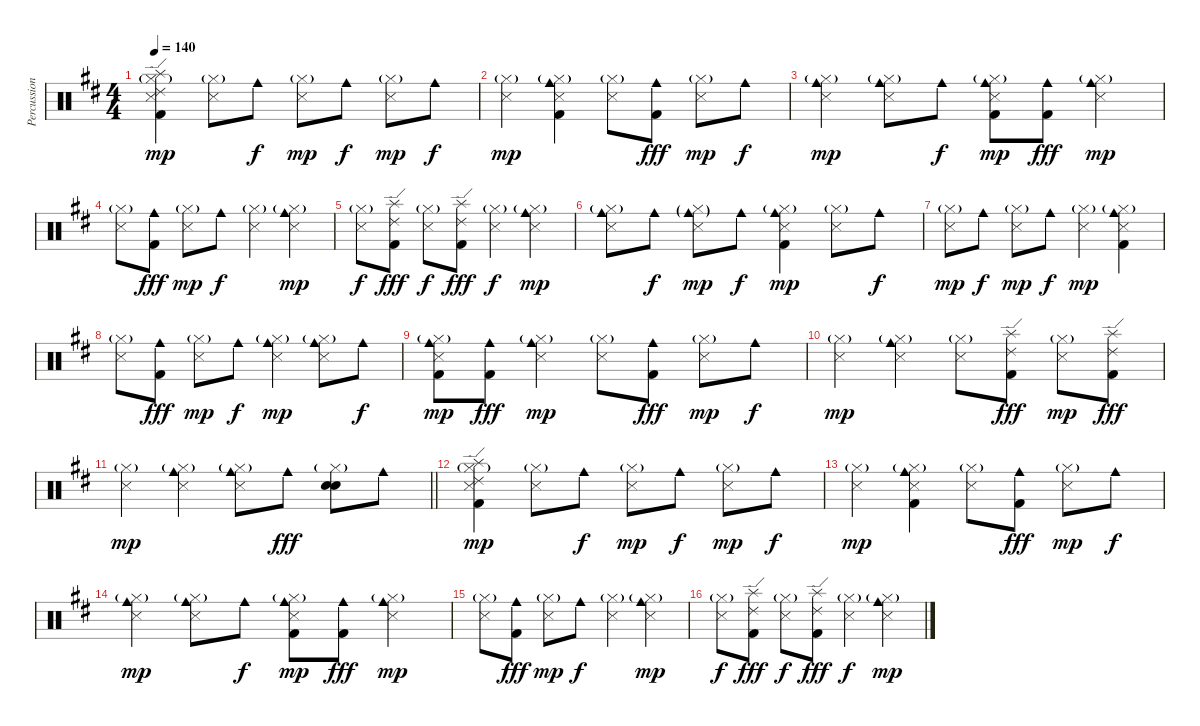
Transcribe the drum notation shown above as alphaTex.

\track ("Percussions" "Percussion") {instrument percussion}
\staff {score}
\articulation defaults
\ts (4 4)
\tempo 140
\clef neutral
\ks d
("Splash (hit)" "Ride (edge) 2" "Snare (side stick) 3" "Kick (hit) 2" "Hi-Hat (closed)"{g}).4{dy mp} ("Snare (side stick) 3" "Hi-Hat (closed)"{g}).8 "Cowbell medium (hit)".8{dy f} ("Snare (side stick) 3" "Hi-Hat (closed)"{g}).8{dy mp} "Cowbell medium (hit)".8{dy f} ("Snare (side stick) 3" "Hi-Hat (closed)"{g}).8{dy mp} "Cowbell medium (hit)".8{dy f} |
("Snare (side stick) 3" "Hi-Hat (closed)"{g}).4{dy mp} ("Cowbell medium (hit)" "Snare (side stick) 3" "Kick (hit) 2" "Hi-Hat (closed)"{g}).4 ("Snare (side stick) 3" "Hi-Hat (closed)"{g}).8 ("Cowbell medium (hit)" "Kick (hit) 2").8{dy fff} ("Snare (side stick) 3" "Hi-Hat (closed)"{g}).8{dy mp} "Cowbell medium (hit)".8{dy f} |
("Cowbell medium (hit)" "Snare (side stick) 3" "Hi-Hat (closed)"{g}).4{dy mp} ("Cowbell medium (hit)" "Snare (side stick) 3" "Hi-Hat (closed)"{g}).8 "Cowbell medium (hit)".8{dy f} ("Cowbell medium (hit)" "Snare (side stick) 3" "Kick (hit) 2" "Hi-Hat (closed)"{g}).8{dy mp} ("Cowbell medium (hit)" "Kick (hit) 2").8{dy fff} ("Cowbell medium (hit)" "Snare (side stick) 3" "Hi-Hat (closed)"{g}).4{dy mp} |
("Snare (side stick) 3" "Hi-Hat (closed)"{g}).8 ("Cowbell medium (hit)" "Kick (hit) 2").8{dy fff} ("Snare (side stick) 3" "Hi-Hat (closed)"{g}).8{dy mp} "Cowbell medium (hit)".8{dy f} ("Snare (side stick) 3" "Hi-Hat (closed)"{g}).4 ("Cowbell medium (hit)" "Snare (side stick) 3" "Hi-Hat (closed)"{g}).4{dy mp} |
("Snare (side stick) 3" "Hi-Hat (closed)"{g}).8{dy f} ("Ride (edge) 2" "Splash (hit)" "Kick (hit) 2").8{dy fff} ("Snare (side stick) 3" "Hi-Hat (closed)"{g}).8{dy f} ("Ride (edge) 2" "Splash (hit)" "Kick (hit) 2").8{dy fff} ("Snare (side stick) 3" "Hi-Hat (closed)"{g}).4{dy f} ("Cowbell medium (hit)" "Snare (side stick) 3" "Hi-Hat (closed)"{g}).4{dy mp} |
("Cowbell medium (hit)" "Snare (side stick) 3" "Hi-Hat (closed)"{g}).8 "Cowbell medium (hit)".8{dy f} ("Cowbell medium (hit)"{g} "Snare (side stick) 3" "Hi-Hat (closed)"{g}).8{dy mp} "Cowbell medium (hit)".8{dy f} ("Cowbell medium (hit)" "Snare (side stick) 3" "Kick (hit) 2" "Hi-Hat (closed)"{g}).4{dy mp} ("Snare (side stick) 3" "Hi-Hat (closed)"{g}).8 "Cowbell medium (hit)".8{dy f} |
("Snare (side stick) 3" "Hi-Hat (closed)"{g}).8{dy mp} "Cowbell medium (hit)".8{dy f} ("Snare (side stick) 3" "Hi-Hat (closed)"{g}).8{dy mp} "Cowbell medium (hit)".8{dy f} ("Snare (side stick) 3" "Hi-Hat (closed)"{g}).4{dy mp} ("Cowbell medium (hit)" "Snare (side stick) 3" "Kick (hit) 2" "Hi-Hat (closed)"{g}).4 |
("Snare (side stick) 3" "Hi-Hat (closed)"{g}).8 ("Cowbell medium (hit)" "Kick (hit) 2").8{dy fff} ("Snare (side stick) 3" "Hi-Hat (closed)"{g}).8{dy mp} "Cowbell medium (hit)".8{dy f} ("Cowbell medium (hit)" "Snare (side stick) 3" "Hi-Hat (closed)"{g}).4{dy mp} ("Cowbell medium (hit)" "Snare (side stick) 3" "Hi-Hat (closed)"{g}).8 "Cowbell medium (hit)".8{dy f} |
("Cowbell medium (hit)" "Snare (side stick) 3" "Kick (hit) 2" "Hi-Hat (closed)"{g}).8{dy mp} ("Cowbell medium (hit)" "Kick (hit) 2").8{dy fff} ("Cowbell medium (hit)" "Snare (side stick) 3" "Hi-Hat (closed)"{g}).4{dy mp} ("Snare (side stick) 3" "Hi-Hat (closed)"{g}).8 ("Cowbell medium (hit)" "Kick (hit) 2").8{dy fff} ("Snare (side stick) 3" "Hi-Hat (closed)"{g}).8{dy mp} "Cowbell medium (hit)".8{dy f} |
("Snare (side stick) 3" "Hi-Hat (closed)"{g}).4{dy mp} ("Cowbell medium (hit)" "Snare (side stick) 3" "Hi-Hat (closed)"{g}).4 ("Snare (side stick) 3" "Hi-Hat (closed)"{g}).8 ("Ride (edge) 2" "Splash (hit)" "Kick (hit) 2").8{dy fff} ("Snare (side stick) 3" "Hi-Hat (closed)"{g}).8{dy mp} ("Ride (edge) 2" "Splash (hit)" "Kick (hit) 2").8{dy fff} |
\barLineRight lightlight
("Snare (side stick) 3" "Hi-Hat (closed)"{g}).4{dy mp} ("Cowbell medium (hit)" "Snare (side stick) 3" "Hi-Hat (closed)"{g}).4 ("Cowbell medium (hit)" "Snare (side stick) 3" "Hi-Hat (closed)"{g}).8 "Cowbell medium (hit)".8{dy fff} ("Electric Snare (hit)" "Snare (hit) 2" "Hi-Hat (closed)"{g}).8 "Cowbell medium (hit)".8 |
("Splash (hit)" "Ride (edge) 2" "Snare (side stick) 3" "Kick (hit) 2" "Hi-Hat (closed)"{g}).4{dy mp} ("Snare (side stick) 3" "Hi-Hat (closed)"{g}).8 "Cowbell medium (hit)".8{dy f} ("Snare (side stick) 3" "Hi-Hat (closed)"{g}).8{dy mp} "Cowbell medium (hit)".8{dy f} ("Snare (side stick) 3" "Hi-Hat (closed)"{g}).8{dy mp} "Cowbell medium (hit)".8{dy f} |
("Snare (side stick) 3" "Hi-Hat (closed)"{g}).4{dy mp} ("Cowbell medium (hit)" "Snare (side stick) 3" "Kick (hit) 2" "Hi-Hat (closed)"{g}).4 ("Snare (side stick) 3" "Hi-Hat (closed)"{g}).8 ("Cowbell medium (hit)" "Kick (hit) 2").8{dy fff} ("Snare (side stick) 3" "Hi-Hat (closed)"{g}).8{dy mp} "Cowbell medium (hit)".8{dy f} |
("Cowbell medium (hit)" "Snare (side stick) 3" "Hi-Hat (closed)"{g}).4{dy mp} ("Cowbell medium (hit)" "Snare (side stick) 3" "Hi-Hat (closed)"{g}).8 "Cowbell medium (hit)".8{dy f} ("Cowbell medium (hit)" "Snare (side stick) 3" "Kick (hit) 2" "Hi-Hat (closed)"{g}).8{dy mp} ("Cowbell medium (hit)" "Kick (hit) 2").8{dy fff} ("Cowbell medium (hit)" "Snare (side stick) 3" "Hi-Hat (closed)"{g}).4{dy mp} |
("Snare (side stick) 3" "Hi-Hat (closed)"{g}).8 ("Cowbell medium (hit)" "Kick (hit) 2").8{dy fff} ("Snare (side stick) 3" "Hi-Hat (closed)"{g}).8{dy mp} "Cowbell medium (hit)".8{dy f} ("Snare (side stick) 3" "Hi-Hat (closed)"{g}).4 ("Cowbell medium (hit)" "Snare (side stick) 3" "Hi-Hat (closed)"{g}).4{dy mp} |
("Snare (side stick) 3" "Hi-Hat (closed)"{g}).8{dy f} ("Ride (edge) 2" "Splash (hit)" "Kick (hit) 2").8{dy fff} ("Snare (side stick) 3" "Hi-Hat (closed)"{g}).8{dy f} ("Ride (edge) 2" "Splash (hit)" "Kick (hit) 2").8{dy fff} ("Snare (side stick) 3" "Hi-Hat (closed)"{g}).4{dy f} ("Cowbell medium (hit)" "Snare (side stick) 3" "Hi-Hat (closed)"{g}).4{dy mp}
